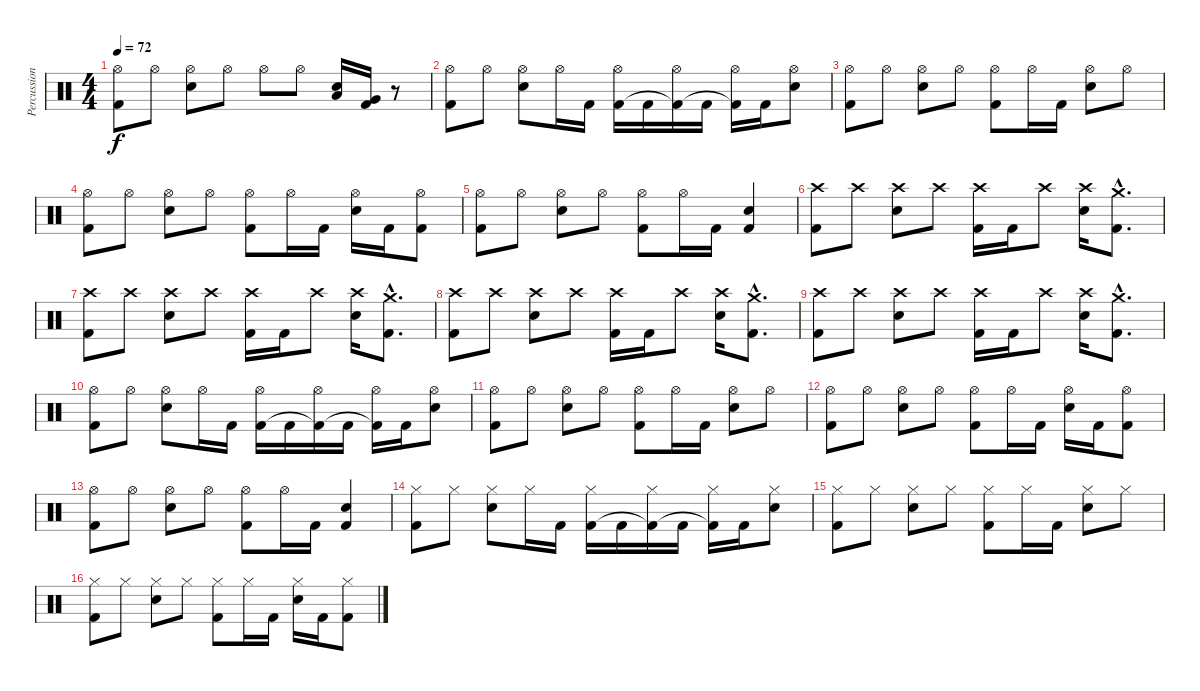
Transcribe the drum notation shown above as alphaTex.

\track ("Percussions" "Percussion") {instrument percussion}
\staff {score}
\articulation defaults
\ts (4 4)
\tempo 72
\clef neutral
\ks c
("Kick (hit) 2" "Hi-Hat (open)").8{dy f} "Hi-Hat (open)".8 ("Electric Snare (hit)" "Hi-Hat (open)").8 "Hi-Hat (open)".8 "Hi-Hat (open)".8 "Hi-Hat (open)".8 ("Low Tom (hit)" "Electric Snare (hit)").16 ("Very Low Tom (hit)" "Kick (hit) 2").16 r.8 |
("Kick (hit) 2" "Hi-Hat (open)").8 "Hi-Hat (open)".8 ("Electric Snare (hit)" "Hi-Hat (open)").8 "Hi-Hat (open)".16 "Kick (hit) 2".16 ("Hi-Hat (open)" "Kick (hit) 2").16 "Kick (hit) 2".16 ("Hi-Hat (open)" "Kick (hit) 2"{t}).16 "Kick (hit) 2".16 ("Hi-Hat (open)" "Kick (hit) 2"{t}).16 "Kick (hit) 2".16 ("Hi-Hat (open)" "Electric Snare (hit)").8 |
("Kick (hit) 2" "Hi-Hat (open)").8 "Hi-Hat (open)".8 ("Electric Snare (hit)" "Hi-Hat (open)").8 "Hi-Hat (open)".8 ("Kick (hit) 2" "Hi-Hat (open)").8 "Hi-Hat (open)".16 "Kick (hit) 2".16 ("Electric Snare (hit)" "Hi-Hat (open)").8 "Hi-Hat (open)".8 |
("Kick (hit) 2" "Hi-Hat (open)").8 "Hi-Hat (open)".8 ("Electric Snare (hit)" "Hi-Hat (open)").8 "Hi-Hat (open)".8 ("Hi-Hat (open)" "Kick (hit) 2").8 "Hi-Hat (open)".16 "Kick (hit) 2".16 ("Hi-Hat (open)" "Electric Snare (hit)").16 "Kick (hit) 2".16 ("Hi-Hat (open)" "Kick (hit) 2").8 |
("Kick (hit) 2" "Hi-Hat (open)").8 "Hi-Hat (open)".8 ("Electric Snare (hit)" "Hi-Hat (open)").8 "Hi-Hat (open)".8 ("Kick (hit) 2" "Hi-Hat (open)").8 "Hi-Hat (open)".16 "Kick (hit) 2".16 ("Kick (hit) 2" "Electric Snare (hit)").4 |
("Crash high (hit)" "Kick (hit) 2").8 "Crash high (hit)".8 ("Crash high (hit)" "Electric Snare (hit)").8 "Crash high (hit)".8 ("Crash high (hit)" "Kick (hit) 2").16 "Kick (hit) 2".16 "Crash high (hit)".8 ("Crash high (hit)" "Electric Snare (hit)").16 ("Crash medium (hit)"{hac} "Kick (hit) 2"{hac}).8{d} |
("Crash high (hit)" "Kick (hit) 2").8 "Crash high (hit)".8 ("Crash high (hit)" "Electric Snare (hit)").8 "Crash high (hit)".8 ("Crash high (hit)" "Kick (hit) 2").16 "Kick (hit) 2".16 "Crash high (hit)".8 ("Crash high (hit)" "Electric Snare (hit)").16 ("Crash medium (hit)"{hac} "Kick (hit) 2"{hac}).8{d} |
("Crash high (hit)" "Kick (hit) 2").8 "Crash high (hit)".8 ("Crash high (hit)" "Electric Snare (hit)").8 "Crash high (hit)".8 ("Crash high (hit)" "Kick (hit) 2").16 "Kick (hit) 2".16 "Crash high (hit)".8 ("Crash high (hit)" "Electric Snare (hit)").16 ("Crash medium (hit)"{hac} "Kick (hit) 2"{hac}).8{d} |
("Crash high (hit)" "Kick (hit) 2").8 "Crash high (hit)".8 ("Crash high (hit)" "Electric Snare (hit)").8 "Crash high (hit)".8 ("Crash high (hit)" "Kick (hit) 2").16 "Kick (hit) 2".16 "Crash high (hit)".8 ("Crash high (hit)" "Electric Snare (hit)").16 ("Crash medium (hit)"{hac} "Kick (hit) 2"{hac}).8{d} |
("Kick (hit) 2" "Hi-Hat (open)").8 "Hi-Hat (open)".8 ("Electric Snare (hit)" "Hi-Hat (open)").8 "Hi-Hat (open)".16 "Kick (hit) 2".16 ("Hi-Hat (open)" "Kick (hit) 2").16 "Kick (hit) 2".16 ("Hi-Hat (open)" "Kick (hit) 2"{t}).16 "Kick (hit) 2".16 ("Hi-Hat (open)" "Kick (hit) 2"{t}).16 "Kick (hit) 2".16 ("Hi-Hat (open)" "Electric Snare (hit)").8 |
("Kick (hit) 2" "Hi-Hat (open)").8 "Hi-Hat (open)".8 ("Electric Snare (hit)" "Hi-Hat (open)").8 "Hi-Hat (open)".8 ("Kick (hit) 2" "Hi-Hat (open)").8 "Hi-Hat (open)".16 "Kick (hit) 2".16 ("Electric Snare (hit)" "Hi-Hat (open)").8 "Hi-Hat (open)".8 |
("Kick (hit) 2" "Hi-Hat (open)").8 "Hi-Hat (open)".8 ("Electric Snare (hit)" "Hi-Hat (open)").8 "Hi-Hat (open)".8 ("Hi-Hat (open)" "Kick (hit) 2").8 "Hi-Hat (open)".16 "Kick (hit) 2".16 ("Hi-Hat (open)" "Electric Snare (hit)").16 "Kick (hit) 2".16 ("Hi-Hat (open)" "Kick (hit) 2").8 |
("Kick (hit) 2" "Hi-Hat (open)").8 "Hi-Hat (open)".8 ("Electric Snare (hit)" "Hi-Hat (open)").8 "Hi-Hat (open)".8 ("Kick (hit) 2" "Hi-Hat (open)").8 "Hi-Hat (open)".16 "Kick (hit) 2".16 ("Kick (hit) 2" "Electric Snare (hit)").4 |
("Kick (hit) 2" "Hi-Hat (closed)").8 "Hi-Hat (closed)".8 ("Electric Snare (hit)" "Hi-Hat (closed)").8 "Hi-Hat (closed)".16 "Kick (hit) 2".16 ("Hi-Hat (closed)" "Kick (hit) 2").16 "Kick (hit) 2".16 ("Hi-Hat (closed)" "Kick (hit) 2"{t}).16 "Kick (hit) 2".16 ("Hi-Hat (closed)" "Kick (hit) 2"{t}).16 "Kick (hit) 2".16 ("Hi-Hat (closed)" "Electric Snare (hit)").8 |
("Kick (hit) 2" "Hi-Hat (closed)").8 "Hi-Hat (closed)".8 ("Electric Snare (hit)" "Hi-Hat (closed)").8 "Hi-Hat (closed)".8 ("Kick (hit) 2" "Hi-Hat (closed)").8 "Hi-Hat (closed)".16 "Kick (hit) 2".16 ("Electric Snare (hit)" "Hi-Hat (closed)").8 "Hi-Hat (closed)".8 |
("Kick (hit) 2" "Hi-Hat (closed)").8 "Hi-Hat (closed)".8 ("Electric Snare (hit)" "Hi-Hat (closed)").8 "Hi-Hat (closed)".8 ("Hi-Hat (closed)" "Kick (hit) 2").8 "Hi-Hat (closed)".16 "Kick (hit) 2".16 ("Hi-Hat (closed)" "Electric Snare (hit)").16 "Kick (hit) 2".16 ("Hi-Hat (closed)" "Kick (hit) 2").8
